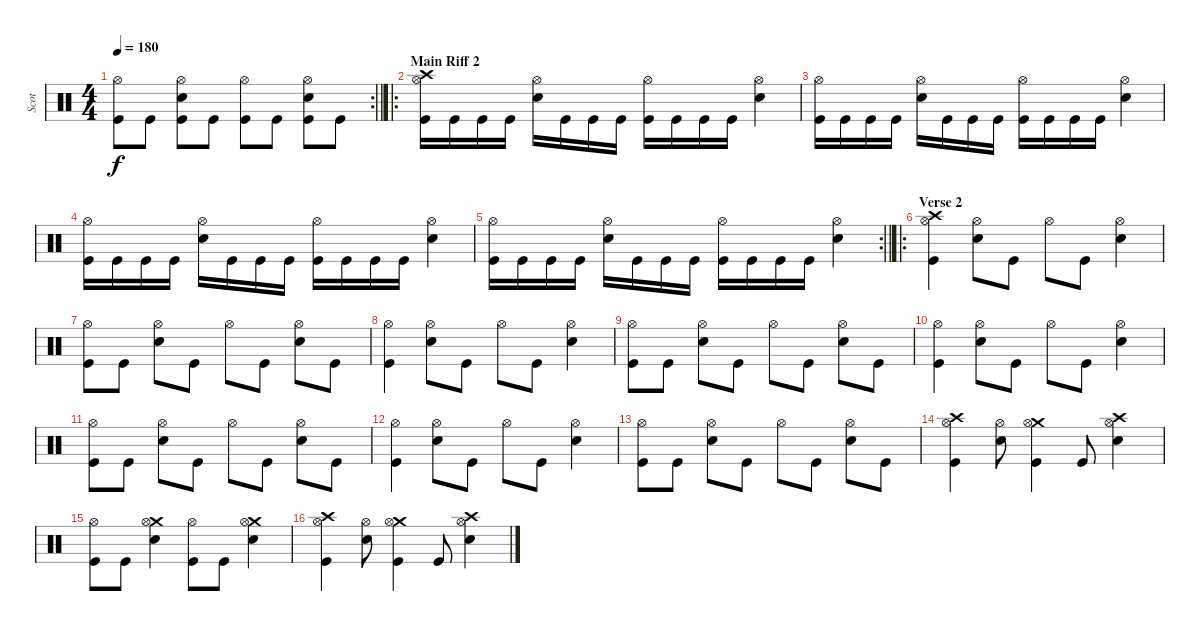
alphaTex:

\track ("Scot" "Scot") {instrument percussion}
\staff {score}
\articulation defaults
\rc 2
\ts (4 4)
\tempo 180
\clef neutral
\barLineRight lightlight
\ks c
("Hi-Hat (open)" "Kick (hit)").8{dy f} "Kick (hit)".8 ("Electric Snare (hit)" "Hi-Hat (open)" "Kick (hit)").8 "Kick (hit)".8 ("Hi-Hat (open)" "Kick (hit)").8 "Kick (hit)".8 ("Electric Snare (hit)" "Hi-Hat (open)" "Kick (hit)").8 "Kick (hit)".8 |
\ro
\section ("" "Main Riff 2")
("Crash high (hit)" "Hi-Hat (open)" "Kick (hit)").16 "Kick (hit)".16 "Kick (hit)".16 "Kick (hit)".16 ("Electric Snare (hit)" "Hi-Hat (open)").16 "Kick (hit)".16 "Kick (hit)".16 "Kick (hit)".16 ("Hi-Hat (open)" "Kick (hit)").16 "Kick (hit)".16 "Kick (hit)".16 "Kick (hit)".16 ("Electric Snare (hit)" "Hi-Hat (open)").4 |
("Hi-Hat (open)" "Kick (hit)").16 "Kick (hit)".16 "Kick (hit)".16 "Kick (hit)".16 ("Electric Snare (hit)" "Hi-Hat (open)").16 "Kick (hit)".16 "Kick (hit)".16 "Kick (hit)".16 ("Hi-Hat (open)" "Kick (hit)").16 "Kick (hit)".16 "Kick (hit)".16 "Kick (hit)".16 ("Electric Snare (hit)" "Hi-Hat (open)").4 |
("Hi-Hat (open)" "Kick (hit)").16 "Kick (hit)".16 "Kick (hit)".16 "Kick (hit)".16 ("Electric Snare (hit)" "Hi-Hat (open)").16 "Kick (hit)".16 "Kick (hit)".16 "Kick (hit)".16 ("Hi-Hat (open)" "Kick (hit)").16 "Kick (hit)".16 "Kick (hit)".16 "Kick (hit)".16 ("Electric Snare (hit)" "Hi-Hat (open)").4 |
\rc 2
\barLineRight lightlight
("Hi-Hat (open)" "Kick (hit)").16 "Kick (hit)".16 "Kick (hit)".16 "Kick (hit)".16 ("Electric Snare (hit)" "Hi-Hat (open)").16 "Kick (hit)".16 "Kick (hit)".16 "Kick (hit)".16 ("Hi-Hat (open)" "Kick (hit)").16 "Kick (hit)".16 "Kick (hit)".16 "Kick (hit)".16 ("Electric Snare (hit)" "Hi-Hat (open)").4 |
\ro
\section ("" "Verse 2")
("Crash high (hit)" "Hi-Hat (open)" "Kick (hit)").4 ("Electric Snare (hit)" "Hi-Hat (open)").8 "Kick (hit)".8 "Hi-Hat (open)".8 "Kick (hit)".8 ("Electric Snare (hit)" "Hi-Hat (open)").4 |
("Hi-Hat (open)" "Kick (hit)").8 "Kick (hit)".8 ("Electric Snare (hit)" "Hi-Hat (open)").8 "Kick (hit)".8 "Hi-Hat (open)".8 "Kick (hit)".8 ("Electric Snare (hit)" "Hi-Hat (open)").8 "Kick (hit)".8 |
("Hi-Hat (open)" "Kick (hit)").4 ("Electric Snare (hit)" "Hi-Hat (open)").8 "Kick (hit)".8 "Hi-Hat (open)".8 "Kick (hit)".8 ("Electric Snare (hit)" "Hi-Hat (open)").4 |
("Hi-Hat (open)" "Kick (hit)").8 "Kick (hit)".8 ("Electric Snare (hit)" "Hi-Hat (open)").8 "Kick (hit)".8 "Hi-Hat (open)".8 "Kick (hit)".8 ("Electric Snare (hit)" "Hi-Hat (open)").8 "Kick (hit)".8 |
("Hi-Hat (open)" "Kick (hit)").4 ("Electric Snare (hit)" "Hi-Hat (open)").8 "Kick (hit)".8 "Hi-Hat (open)".8 "Kick (hit)".8 ("Electric Snare (hit)" "Hi-Hat (open)").4 |
("Hi-Hat (open)" "Kick (hit)").8 "Kick (hit)".8 ("Electric Snare (hit)" "Hi-Hat (open)").8 "Kick (hit)".8 "Hi-Hat (open)".8 "Kick (hit)".8 ("Electric Snare (hit)" "Hi-Hat (open)").8 "Kick (hit)".8 |
("Hi-Hat (open)" "Kick (hit)").4 ("Electric Snare (hit)" "Hi-Hat (open)").8 "Kick (hit)".8 "Hi-Hat (open)".8 "Kick (hit)".8 ("Electric Snare (hit)" "Hi-Hat (open)").4 |
("Hi-Hat (open)" "Kick (hit)").8 "Kick (hit)".8 ("Electric Snare (hit)" "Hi-Hat (open)").8 "Kick (hit)".8 "Hi-Hat (open)".8 "Kick (hit)".8 ("Electric Snare (hit)" "Hi-Hat (open)").8 "Kick (hit)".8 |
("Crash high (hit)" "Hi-Hat (open)" "Kick (hit)").4 ("Electric Snare (hit)" "Hi-Hat (open)").8 ("Crash medium (hit)" "Hi-Hat (open)" "Kick (hit)").4 "Kick (hit)".8 ("Crash high (hit)" "Electric Snare (hit)" "Hi-Hat (open)").4 |
("Hi-Hat (open)" "Kick (hit)").8 "Kick (hit)".8 ("Crash medium (hit)" "Electric Snare (hit)" "Hi-Hat (open)").4 ("Hi-Hat (open)" "Kick (hit)").8 "Kick (hit)".8 ("Crash medium (hit)" "Electric Snare (hit)" "Hi-Hat (open)").4 |
("Crash high (hit)" "Hi-Hat (open)" "Kick (hit)").4 ("Electric Snare (hit)" "Hi-Hat (open)").8 ("Crash medium (hit)" "Hi-Hat (open)" "Kick (hit)").4 "Kick (hit)".8 ("Crash high (hit)" "Electric Snare (hit)" "Hi-Hat (open)").4
